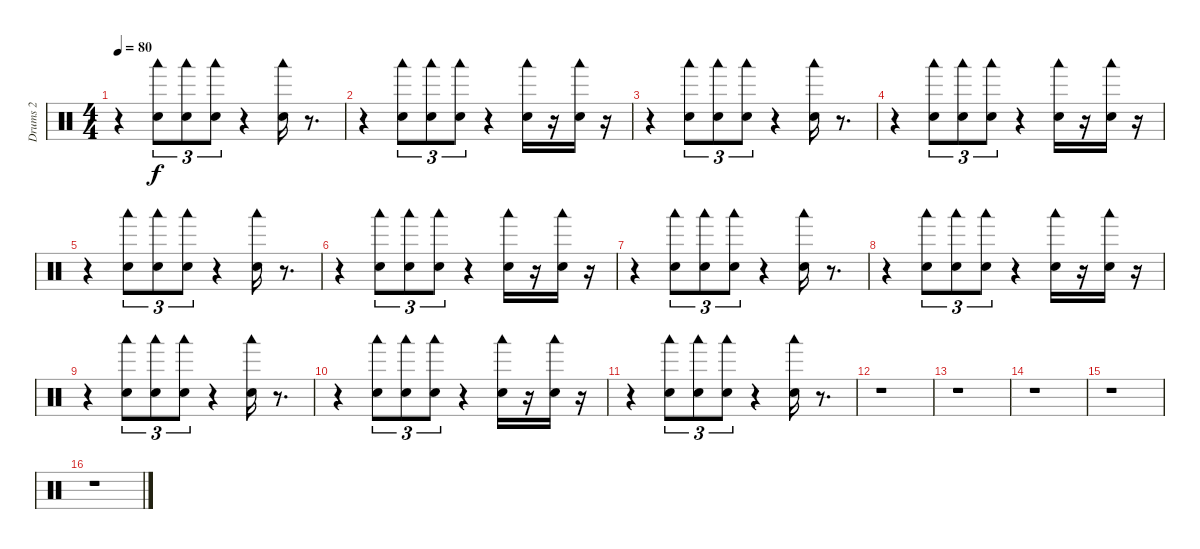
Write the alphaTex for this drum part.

\track ("Drums 2" "Drums 2") {instrument percussion}
\staff {score}
\articulation defaults
\ts (4 4)
\tempo 80
\clef neutral
\ks c
r.4{dy f} ("Woodblock low (hit)" "Electric Snare (hit)").8{tu (3 2)} ("Woodblock low (hit)" "Electric Snare (hit)").8{tu (3 2)} ("Woodblock low (hit)" "Electric Snare (hit)").8{tu (3 2)} r.4 ("Woodblock low (hit)" "Electric Snare (hit)").16 r.8{d} |
r.4 ("Woodblock low (hit)" "Electric Snare (hit)").8{tu (3 2)} ("Woodblock low (hit)" "Electric Snare (hit)").8{tu (3 2)} ("Woodblock low (hit)" "Electric Snare (hit)").8{tu (3 2)} r.4 ("Woodblock low (hit)" "Electric Snare (hit)").16 r.16 ("Woodblock low (hit)" "Electric Snare (hit)").16 r.16 |
r.4 ("Woodblock low (hit)" "Electric Snare (hit)").8{tu (3 2)} ("Woodblock low (hit)" "Electric Snare (hit)").8{tu (3 2)} ("Woodblock low (hit)" "Electric Snare (hit)").8{tu (3 2)} r.4 ("Woodblock low (hit)" "Electric Snare (hit)").16 r.8{d} |
r.4 ("Woodblock low (hit)" "Electric Snare (hit)").8{tu (3 2)} ("Woodblock low (hit)" "Electric Snare (hit)").8{tu (3 2)} ("Woodblock low (hit)" "Electric Snare (hit)").8{tu (3 2)} r.4 ("Woodblock low (hit)" "Electric Snare (hit)").16 r.16 ("Woodblock low (hit)" "Electric Snare (hit)").16 r.16 |
r.4 ("Woodblock low (hit)" "Electric Snare (hit)").8{tu (3 2)} ("Woodblock low (hit)" "Electric Snare (hit)").8{tu (3 2)} ("Woodblock low (hit)" "Electric Snare (hit)").8{tu (3 2)} r.4 ("Woodblock low (hit)" "Electric Snare (hit)").16 r.8{d} |
r.4 ("Woodblock low (hit)" "Electric Snare (hit)").8{tu (3 2)} ("Woodblock low (hit)" "Electric Snare (hit)").8{tu (3 2)} ("Woodblock low (hit)" "Electric Snare (hit)").8{tu (3 2)} r.4 ("Woodblock low (hit)" "Electric Snare (hit)").16 r.16 ("Woodblock low (hit)" "Electric Snare (hit)").16 r.16 |
r.4 ("Woodblock low (hit)" "Electric Snare (hit)").8{tu (3 2)} ("Woodblock low (hit)" "Electric Snare (hit)").8{tu (3 2)} ("Woodblock low (hit)" "Electric Snare (hit)").8{tu (3 2)} r.4 ("Woodblock low (hit)" "Electric Snare (hit)").16 r.8{d} |
r.4 ("Woodblock low (hit)" "Electric Snare (hit)").8{tu (3 2)} ("Woodblock low (hit)" "Electric Snare (hit)").8{tu (3 2)} ("Woodblock low (hit)" "Electric Snare (hit)").8{tu (3 2)} r.4 ("Woodblock low (hit)" "Electric Snare (hit)").16 r.16 ("Woodblock low (hit)" "Electric Snare (hit)").16 r.16 |
r.4 ("Woodblock low (hit)" "Electric Snare (hit)").8{tu (3 2)} ("Woodblock low (hit)" "Electric Snare (hit)").8{tu (3 2)} ("Woodblock low (hit)" "Electric Snare (hit)").8{tu (3 2)} r.4 ("Woodblock low (hit)" "Electric Snare (hit)").16 r.8{d} |
r.4 ("Woodblock low (hit)" "Electric Snare (hit)").8{tu (3 2)} ("Woodblock low (hit)" "Electric Snare (hit)").8{tu (3 2)} ("Woodblock low (hit)" "Electric Snare (hit)").8{tu (3 2)} r.4 ("Woodblock low (hit)" "Electric Snare (hit)").16 r.16 ("Woodblock low (hit)" "Electric Snare (hit)").16 r.16 |
r.4 ("Woodblock low (hit)" "Electric Snare (hit)").8{tu (3 2)} ("Woodblock low (hit)" "Electric Snare (hit)").8{tu (3 2)} ("Woodblock low (hit)" "Electric Snare (hit)").8{tu (3 2)} r.4 ("Woodblock low (hit)" "Electric Snare (hit)").16 r.8{d} |
r.1 |
r.1 |
r.1 |
r.1 |
r.1
